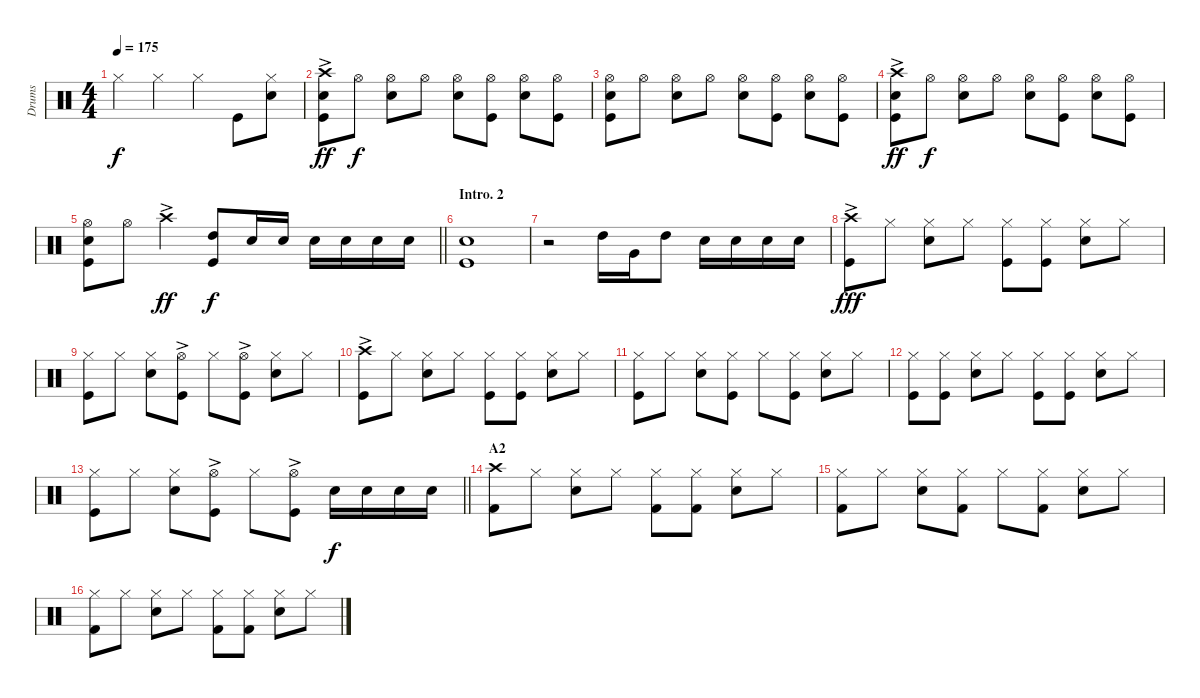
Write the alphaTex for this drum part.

\track ("Drums" "Drums") {instrument percussion}
\staff {score}
\articulation defaults
\ts (4 4)
\tempo 175
\clef neutral
\ks c "Hi-Hat (closed)".4{dy f} "Hi-Hat (closed)".4 "Hi-Hat (closed)".4 "Kick (hit)".8
("Snare (hit) 2" "Hi-Hat (closed)").8 |
("Crash high (hit)"{ac} "Snare (hit) 2" "Kick (hit)").8{dy ff} "Hi-Hat (open)".8{dy f} ("Hi-Hat (open)" "Snare (hit) 2").8 "Hi-Hat (open)".8 ("Hi-Hat (open)" "Snare (hit) 2").8 ("Hi-Hat (open)" "Kick (hit)").8 ("Hi-Hat (open)" "Snare (hit) 2").8 ("Hi-Hat (open)" "Kick (hit)").8 |
("Hi-Hat (open)" "Kick (hit)" "Snare (hit) 2").8 "Hi-Hat (open)".8 ("Hi-Hat (open)" "Snare (hit) 2").8 "Hi-Hat (open)".8 ("Hi-Hat (open)" "Snare (hit) 2").8 ("Hi-Hat (open)" "Kick (hit)").8 ("Hi-Hat (open)" "Snare (hit) 2").8 ("Hi-Hat (open)" "Kick (hit)").8 |
("Crash high (hit)"{ac} "Snare (hit) 2" "Kick (hit)").8{dy ff} "Hi-Hat (open)".8{dy f} ("Hi-Hat (open)" "Snare (hit) 2").8 "Hi-Hat (open)".8 ("Hi-Hat (open)" "Snare (hit) 2").8 ("Hi-Hat (open)" "Kick (hit)").8 ("Hi-Hat (open)" "Snare (hit) 2").8 ("Hi-Hat (open)" "Kick (hit)").8 |
\barLineRight lightlight
("Kick (hit)" "Snare (hit) 2" "Hi-Hat (open)").8 "Hi-Hat (open)".8 "Crash high (hit)"{ac}.4{dy ff} ("High Tom (hit)" "Kick (hit)").8{dy f} "Snare (hit) 2".16 "Snare (hit) 2".16 "Snare (hit) 2".16 "Snare (hit) 2".16 "Snare (hit) 2".16 "Snare (hit) 2".16 |
\section ("" "Intro. 2")
("Snare (hit) 2" "Kick (hit)").1 |
r.2 "High Tom (hit)".16 "Very Low Tom (hit)".16 "High Tom (hit)".8 "Snare (hit) 2".16 "Snare (hit) 2".16 "Snare (hit) 2".16 "Snare (hit) 2".16 |
("Crash high (hit)"{ac} "Kick (hit)").8{dy fff} "Hi-Hat (closed)".8 ("Hi-Hat (closed)" "Snare (hit) 2").8 "Hi-Hat (closed)".8 ("Hi-Hat (closed)" "Kick (hit)").8 ("Hi-Hat (closed)" "Kick (hit)").8 ("Hi-Hat (closed)" "Snare (hit) 2").8 "Hi-Hat (closed)".8 |
("Hi-Hat (closed)" "Kick (hit)").8 "Hi-Hat (closed)".8 ("Hi-Hat (closed)" "Snare (hit) 2").8 ("Hi-Hat (open)"{ac} "Kick (hit)").8 "Hi-Hat (closed)".8 ("Hi-Hat (open)"{ac} "Kick (hit)").8 ("Hi-Hat (closed)" "Snare (hit) 2").8 "Hi-Hat (closed)".8 |
("Crash high (hit)"{ac} "Kick (hit)").8 "Hi-Hat (closed)".8 ("Hi-Hat (closed)" "Snare (hit) 2").8 "Hi-Hat (closed)".8 ("Hi-Hat (closed)" "Kick (hit)").8 ("Hi-Hat (closed)" "Kick (hit)").8 ("Hi-Hat (closed)" "Snare (hit) 2").8 "Hi-Hat (closed)".8 |
("Hi-Hat (closed)" "Kick (hit)").8 "Hi-Hat (closed)".8 ("Hi-Hat (closed)" "Snare (hit) 2").8 ("Hi-Hat (closed)" "Kick (hit)").8 "Hi-Hat (closed)".8 ("Hi-Hat (closed)" "Kick (hit)").8 ("Hi-Hat (closed)" "Snare (hit) 2").8 "Hi-Hat (closed)".8 |
("Hi-Hat (closed)" "Kick (hit)").8 ("Hi-Hat (closed)" "Kick (hit)").8 ("Hi-Hat (closed)" "Snare (hit) 2").8 "Hi-Hat (closed)".8 ("Hi-Hat (closed)" "Kick (hit)").8 ("Hi-Hat (closed)" "Kick (hit)").8 ("Hi-Hat (closed)" "Snare (hit) 2").8 "Hi-Hat (closed)".8 |
\barLineRight lightlight
("Hi-Hat (closed)" "Kick (hit)").8 "Hi-Hat (closed)".8 ("Hi-Hat (closed)" "Snare (hit) 2").8 ("Hi-Hat (open)"{ac} "Kick (hit)").8 "Hi-Hat (closed)".8 ("Hi-Hat (open)"{ac} "Kick (hit)").8 "Snare (hit) 2".16{dy f} "Snare (hit) 2".16 "Snare (hit) 2".16 "Snare (hit) 2".16 |
\section ("" "A2")
("Crash high (hit)" "Kick (hit) 2").8 "Hi-Hat (closed)".8 ("Hi-Hat (closed)" "Snare (hit) 2").8 "Hi-Hat (closed)".8 ("Hi-Hat (closed)" "Kick (hit) 2").8 ("Hi-Hat (closed)" "Kick (hit) 2").8 ("Hi-Hat (closed)" "Snare (hit) 2").8 "Hi-Hat (closed)".8 |
("Hi-Hat (closed)" "Kick (hit) 2").8 "Hi-Hat (closed)".8 ("Hi-Hat (closed)" "Snare (hit) 2").8 ("Hi-Hat (closed)" "Kick (hit) 2").8 "Hi-Hat (closed)".8 ("Hi-Hat (closed)" "Kick (hit) 2").8 ("Hi-Hat (closed)" "Snare (hit) 2").8 "Hi-Hat (closed)".8 |
("Hi-Hat (closed)" "Kick (hit) 2").8 "Hi-Hat (closed)".8 ("Hi-Hat (closed)" "Snare (hit) 2").8 "Hi-Hat (closed)".8 ("Hi-Hat (closed)" "Kick (hit) 2").8 ("Hi-Hat (closed)" "Kick (hit) 2").8 ("Hi-Hat (closed)" "Snare (hit) 2").8 "Hi-Hat (closed)".8
